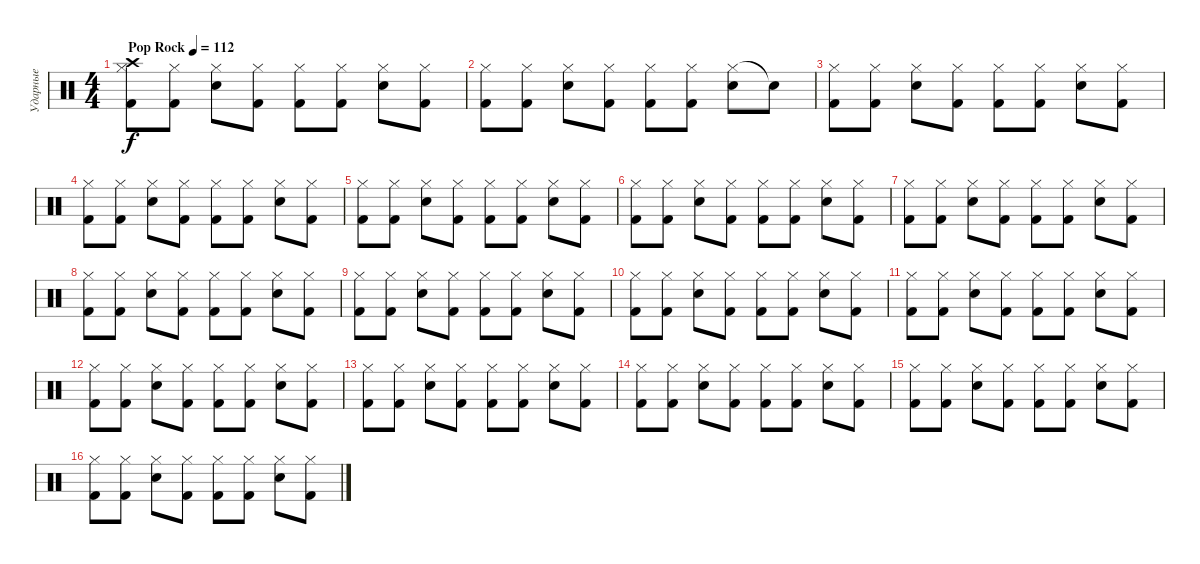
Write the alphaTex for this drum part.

\track ("Ударные" "Ударные") {instrument percussion}
\staff {score}
\articulation defaults
\ts (4 4)
\tempo (112 "Pop Rock")
\clef neutral
\ks c
("Hi-Hat (closed)" "Kick (hit) 2" "Crash high (hit)").8{dy f} ("Hi-Hat (closed)" "Kick (hit) 2").8 ("Hi-Hat (closed)" "Snare (hit) 2").8 ("Hi-Hat (closed)" "Kick (hit) 2").8 ("Hi-Hat (closed)" "Kick (hit) 2").8 ("Hi-Hat (closed)" "Kick (hit) 2").8 ("Hi-Hat (closed)" "Snare (hit) 2").8 ("Hi-Hat (closed)" "Kick (hit) 2").8 |
("Hi-Hat (closed)" "Kick (hit) 2").8 ("Hi-Hat (closed)" "Kick (hit) 2").8 ("Hi-Hat (closed)" "Snare (hit) 2").8 ("Hi-Hat (closed)" "Kick (hit) 2").8 ("Hi-Hat (closed)" "Kick (hit) 2").8 ("Hi-Hat (closed)" "Kick (hit) 2").8 ("Hi-Hat (closed)" "Snare (hit) 2").8 "Snare (hit) 2"{t}.8 |
("Hi-Hat (closed)" "Kick (hit) 2").8 ("Hi-Hat (closed)" "Kick (hit) 2").8 ("Hi-Hat (closed)" "Snare (hit) 2").8 ("Hi-Hat (closed)" "Kick (hit) 2").8 ("Hi-Hat (closed)" "Kick (hit) 2").8 ("Hi-Hat (closed)" "Kick (hit) 2").8 ("Hi-Hat (closed)" "Snare (hit) 2").8 ("Hi-Hat (closed)" "Kick (hit) 2").8 |
("Hi-Hat (closed)" "Kick (hit) 2").8 ("Hi-Hat (closed)" "Kick (hit) 2").8 ("Hi-Hat (closed)" "Snare (hit) 2").8 ("Hi-Hat (closed)" "Kick (hit) 2").8 ("Hi-Hat (closed)" "Kick (hit) 2").8 ("Hi-Hat (closed)" "Kick (hit) 2").8 ("Hi-Hat (closed)" "Snare (hit) 2").8 ("Hi-Hat (closed)" "Kick (hit) 2").8 |
("Hi-Hat (closed)" "Kick (hit) 2").8 ("Hi-Hat (closed)" "Kick (hit) 2").8 ("Hi-Hat (closed)" "Snare (hit) 2").8 ("Hi-Hat (closed)" "Kick (hit) 2").8 ("Hi-Hat (closed)" "Kick (hit) 2").8 ("Hi-Hat (closed)" "Kick (hit) 2").8 ("Hi-Hat (closed)" "Snare (hit) 2").8 ("Hi-Hat (closed)" "Kick (hit) 2").8 |
("Hi-Hat (closed)" "Kick (hit) 2").8 ("Hi-Hat (closed)" "Kick (hit) 2").8 ("Hi-Hat (closed)" "Snare (hit) 2").8 ("Hi-Hat (closed)" "Kick (hit) 2").8 ("Hi-Hat (closed)" "Kick (hit) 2").8 ("Hi-Hat (closed)" "Kick (hit) 2").8 ("Hi-Hat (closed)" "Snare (hit) 2").8 ("Hi-Hat (closed)" "Kick (hit) 2").8 |
("Hi-Hat (closed)" "Kick (hit) 2").8 ("Hi-Hat (closed)" "Kick (hit) 2").8 ("Hi-Hat (closed)" "Snare (hit) 2").8 ("Hi-Hat (closed)" "Kick (hit) 2").8 ("Hi-Hat (closed)" "Kick (hit) 2").8 ("Hi-Hat (closed)" "Kick (hit) 2").8 ("Hi-Hat (closed)" "Snare (hit) 2").8 ("Hi-Hat (closed)" "Kick (hit) 2").8 |
("Hi-Hat (closed)" "Kick (hit) 2").8 ("Hi-Hat (closed)" "Kick (hit) 2").8 ("Hi-Hat (closed)" "Snare (hit) 2").8 ("Hi-Hat (closed)" "Kick (hit) 2").8 ("Hi-Hat (closed)" "Kick (hit) 2").8 ("Hi-Hat (closed)" "Kick (hit) 2").8 ("Hi-Hat (closed)" "Snare (hit) 2").8 ("Hi-Hat (closed)" "Kick (hit) 2").8 |
("Hi-Hat (closed)" "Kick (hit) 2").8 ("Hi-Hat (closed)" "Kick (hit) 2").8 ("Hi-Hat (closed)" "Snare (hit) 2").8 ("Hi-Hat (closed)" "Kick (hit) 2").8 ("Hi-Hat (closed)" "Kick (hit) 2").8 ("Hi-Hat (closed)" "Kick (hit) 2").8 ("Hi-Hat (closed)" "Snare (hit) 2").8 ("Hi-Hat (closed)" "Kick (hit) 2").8 |
("Hi-Hat (closed)" "Kick (hit) 2").8 ("Hi-Hat (closed)" "Kick (hit) 2").8 ("Hi-Hat (closed)" "Snare (hit) 2").8 ("Hi-Hat (closed)" "Kick (hit) 2").8 ("Hi-Hat (closed)" "Kick (hit) 2").8 ("Hi-Hat (closed)" "Kick (hit) 2").8 ("Hi-Hat (closed)" "Snare (hit) 2").8 ("Hi-Hat (closed)" "Kick (hit) 2").8 |
("Hi-Hat (closed)" "Kick (hit) 2").8 ("Hi-Hat (closed)" "Kick (hit) 2").8 ("Hi-Hat (closed)" "Snare (hit) 2").8 ("Hi-Hat (closed)" "Kick (hit) 2").8 ("Hi-Hat (closed)" "Kick (hit) 2").8 ("Hi-Hat (closed)" "Kick (hit) 2").8 ("Hi-Hat (closed)" "Snare (hit) 2").8 ("Hi-Hat (closed)" "Kick (hit) 2").8 |
("Hi-Hat (closed)" "Kick (hit) 2").8 ("Hi-Hat (closed)" "Kick (hit) 2").8 ("Hi-Hat (closed)" "Snare (hit) 2").8 ("Hi-Hat (closed)" "Kick (hit) 2").8 ("Hi-Hat (closed)" "Kick (hit) 2").8 ("Hi-Hat (closed)" "Kick (hit) 2").8 ("Hi-Hat (closed)" "Snare (hit) 2").8 ("Hi-Hat (closed)" "Kick (hit) 2").8 |
("Hi-Hat (closed)" "Kick (hit) 2").8 ("Hi-Hat (closed)" "Kick (hit) 2").8 ("Hi-Hat (closed)" "Snare (hit) 2").8 ("Hi-Hat (closed)" "Kick (hit) 2").8 ("Hi-Hat (closed)" "Kick (hit) 2").8 ("Hi-Hat (closed)" "Kick (hit) 2").8 ("Hi-Hat (closed)" "Snare (hit) 2").8 ("Hi-Hat (closed)" "Kick (hit) 2").8 |
("Hi-Hat (closed)" "Kick (hit) 2").8 ("Hi-Hat (closed)" "Kick (hit) 2").8 ("Hi-Hat (closed)" "Snare (hit) 2").8 ("Hi-Hat (closed)" "Kick (hit) 2").8 ("Hi-Hat (closed)" "Kick (hit) 2").8 ("Hi-Hat (closed)" "Kick (hit) 2").8 ("Hi-Hat (closed)" "Snare (hit) 2").8 ("Hi-Hat (closed)" "Kick (hit) 2").8 |
("Hi-Hat (closed)" "Kick (hit) 2").8 ("Hi-Hat (closed)" "Kick (hit) 2").8 ("Hi-Hat (closed)" "Snare (hit) 2").8 ("Hi-Hat (closed)" "Kick (hit) 2").8 ("Hi-Hat (closed)" "Kick (hit) 2").8 ("Hi-Hat (closed)" "Kick (hit) 2").8 ("Hi-Hat (closed)" "Snare (hit) 2").8 ("Hi-Hat (closed)" "Kick (hit) 2").8 |
("Hi-Hat (closed)" "Kick (hit) 2").8 ("Hi-Hat (closed)" "Kick (hit) 2").8 ("Hi-Hat (closed)" "Snare (hit) 2").8 ("Hi-Hat (closed)" "Kick (hit) 2").8 ("Hi-Hat (closed)" "Kick (hit) 2").8 ("Hi-Hat (closed)" "Kick (hit) 2").8 ("Hi-Hat (closed)" "Snare (hit) 2").8 ("Hi-Hat (closed)" "Kick (hit) 2").8
